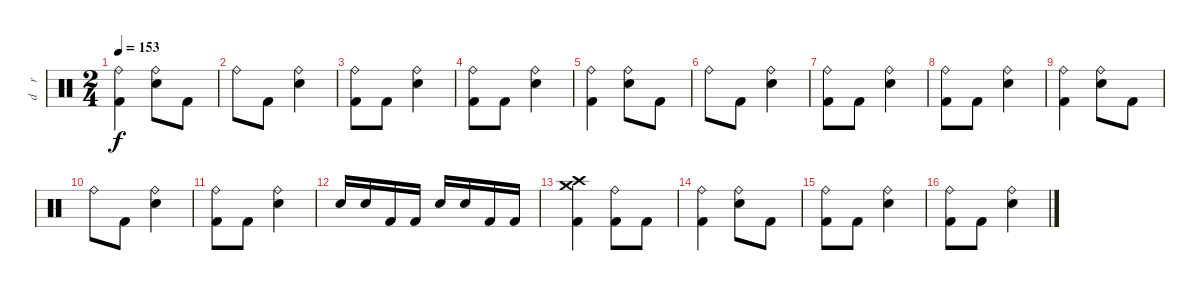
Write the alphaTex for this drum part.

\track ("d    r     u    m    s" "d    r    ") {instrument percussion}
\staff {score}
\articulation defaults
\ts (2 4)
\tempo 153
\clef neutral
\ks c
("Ride (bell)" "Kick (hit) 2").4{dy f} ("Ride (bell)" "Electric Snare (hit)").8 "Kick (hit) 2".8 |
"Ride (bell)".8 "Kick (hit) 2".8 ("Ride (bell)" "Electric Snare (hit)").4 |
("Ride (bell)" "Kick (hit) 2").8 "Kick (hit) 2".8 ("Ride (bell)" "Electric Snare (hit)").4 |
("Ride (bell)" "Kick (hit) 2").8 "Kick (hit) 2".8 ("Ride (bell)" "Electric Snare (hit)").4 |
("Ride (bell)" "Kick (hit) 2").4 ("Ride (bell)" "Electric Snare (hit)").8 "Kick (hit) 2".8 |
"Ride (bell)".8 "Kick (hit) 2".8 ("Ride (bell)" "Electric Snare (hit)").4 |
("Ride (bell)" "Kick (hit) 2").8 "Kick (hit) 2".8 ("Ride (bell)" "Electric Snare (hit)").4 |
("Ride (bell)" "Kick (hit) 2").8 "Kick (hit) 2".8 ("Ride (bell)" "Electric Snare (hit)").4 |
("Ride (bell)" "Kick (hit) 2").4 ("Ride (bell)" "Electric Snare (hit)").8 "Kick (hit) 2".8 |
"Ride (bell)".8 "Kick (hit) 2".8 ("Ride (bell)" "Electric Snare (hit)").4 |
("Ride (bell)" "Kick (hit) 2").8 "Kick (hit) 2".8 ("Ride (bell)" "Electric Snare (hit)").4 |
"Electric Snare (hit)".16 "Electric Snare (hit)".16 "Kick (hit) 2".16 "Kick (hit) 2".16 "Electric Snare (hit)".16 "Electric Snare (hit)".16 "Kick (hit) 2".16 "Kick (hit) 2".16 |
("Crash high (hit)" "Crash medium (hit)" "Kick (hit) 2").4 ("Ride (bell)" "Kick (hit) 2").8 "Kick (hit) 2".8 |
("Ride (bell)" "Kick (hit) 2").4 ("Ride (bell)" "Electric Snare (hit)").8 "Kick (hit) 2".8 |
("Ride (bell)" "Kick (hit) 2").8 "Kick (hit) 2".8 ("Ride (bell)" "Electric Snare (hit)").4 |
("Ride (bell)" "Kick (hit) 2").8 "Kick (hit) 2".8 ("Ride (bell)" "Electric Snare (hit)").4
